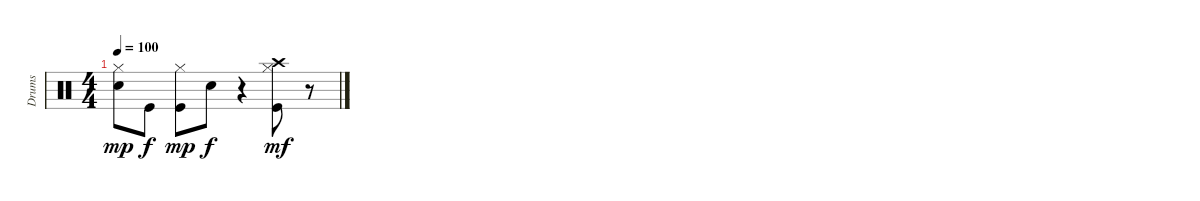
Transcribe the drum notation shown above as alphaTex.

\track ("Drums" "Drums") {instrument percussion}
\staff {score}
\articulation defaults
\ts (4 4)
\tempo 100
\clef neutral
\ks c
("Snare (hit) 2" "Hi-Hat (closed)").8{dy mp} "Kick (hit)".8{dy f} ("Kick (hit)" "Hi-Hat (closed)").8{dy mp} "Snare (hit) 2".8{dy f} r.4 ("Kick (hit)" "Hi-Hat (closed)" "Crash high (hit)").8{dy mf} r.8
